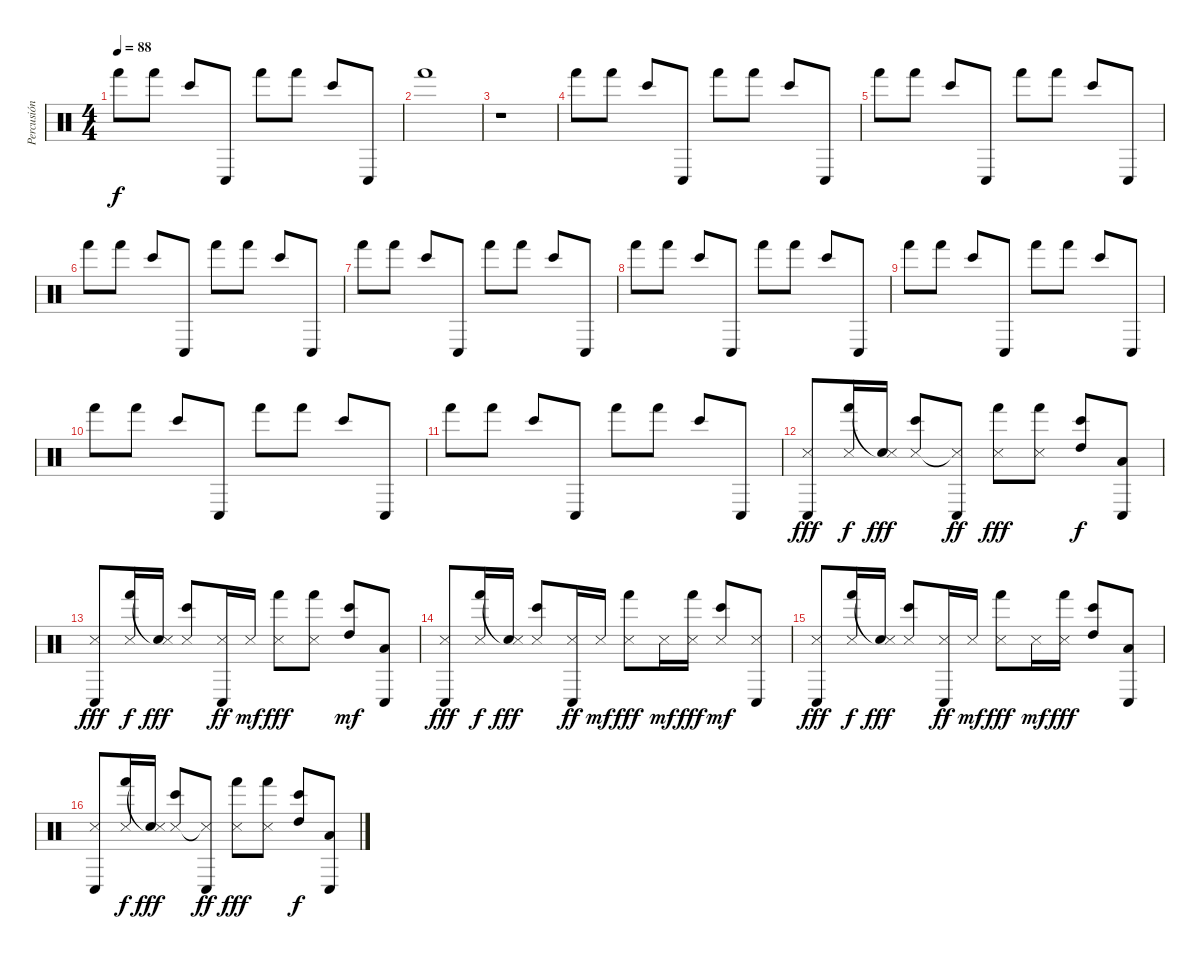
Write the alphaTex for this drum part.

\track ("Percusión" "Percusión") {instrument percussion}
\staff {score}
\articulation defaults
\ts (4 4)
\tempo 88
\clef neutral
\ks c "Hand (hit)".8{dy f} "Hand (hit)".8 "Bongo High (hit)".8 "Conga low (hit)".8 "Hand (hit)".8 "Hand (hit)".8 "Bongo High (hit)".8 "Conga low (hit)".8
|
"Hand (hit)".1 |
r.1 |
"Hand (hit)".8 "Hand (hit)".8 "Bongo High (hit)".8 "Conga low (hit)".8 "Hand (hit)".8 "Hand (hit)".8 "Bongo High (hit)".8 "Conga low (hit)".8 |
"Hand (hit)".8 "Hand (hit)".8 "Bongo High (hit)".8 "Conga low (hit)".8 "Hand (hit)".8 "Hand (hit)".8 "Bongo High (hit)".8 "Conga low (hit)".8 |
"Hand (hit)".8 "Hand (hit)".8 "Bongo High (hit)".8 "Conga low (hit)".8 "Hand (hit)".8 "Hand (hit)".8 "Bongo High (hit)".8 "Conga low (hit)".8 |
"Hand (hit)".8 "Hand (hit)".8 "Bongo High (hit)".8 "Conga low (hit)".8 "Hand (hit)".8 "Hand (hit)".8 "Bongo High (hit)".8 "Conga low (hit)".8 |
"Hand (hit)".8 "Hand (hit)".8 "Bongo High (hit)".8 "Conga low (hit)".8 "Hand (hit)".8 "Hand (hit)".8 "Bongo High (hit)".8 "Conga low (hit)".8 |
"Hand (hit)".8 "Hand (hit)".8 "Bongo High (hit)".8 "Conga low (hit)".8 "Hand (hit)".8 "Hand (hit)".8 "Bongo High (hit)".8 "Conga low (hit)".8 |
"Hand (hit)".8 "Hand (hit)".8 "Bongo High (hit)".8 "Conga low (hit)".8 "Hand (hit)".8 "Hand (hit)".8 "Bongo High (hit)".8 "Conga low (hit)".8 |
"Hand (hit)".8 "Hand (hit)".8 "Bongo High (hit)".8 "Conga low (hit)".8 "Hand (hit)".8 "Hand (hit)".8 "Bongo High (hit)".8 "Conga low (hit)".8 |
("Conga low (hit)" "Snare (side stick) 3").8{dy fff} ("Hand (hit)" "Snare (side stick) 3").16{dy f} ("Snare (hit)"{t} "Snare (side stick) 3").16{dy fff} ("Bongo High (hit)" "Snare (side stick) 3").8 ("Conga low (hit)" "Snare (side stick) 3"{t}).8{dy ff} ("Hand (hit)" "Snare (side stick) 3").8{dy fff} ("Hand (hit)" "Snare (side stick) 3").8 ("Bongo High (hit)" "High Tom (hit)").8{dy f} ("Conga low (hit)" "Low Tom (hit)").8 |
("Conga low (hit)" "Snare (side stick) 3").8{dy fff} ("Hand (hit)" "Snare (side stick) 3").16{dy f} ("Snare (hit)"{t} "Snare (side stick) 3").16{dy fff} ("Bongo High (hit)" "Snare (side stick) 3").8 ("Conga low (hit)" "Snare (side stick) 3").16{dy ff} "Snare (side stick) 3".16{dy mf} ("Hand (hit)" "Snare (side stick) 3").8{dy fff} ("Hand (hit)" "Snare (side stick) 3").8 ("Bongo High (hit)" "High Tom (hit)").8{dy mf} ("Conga low (hit)" "Low Tom (hit)").8 |
("Conga low (hit)" "Snare (side stick) 3").8{dy fff} ("Hand (hit)" "Snare (side stick) 3").16{dy f} ("Snare (hit)"{t} "Snare (side stick) 3").16{dy fff} ("Bongo High (hit)" "Snare (side stick) 3").8 ("Conga low (hit)" "Snare (side stick) 3").16{dy ff} "Snare (side stick) 3".16{dy mf} ("Hand (hit)" "Snare (side stick) 3").8{dy fff} "Snare (side stick) 3".16{dy mf} ("Hand (hit)" "Snare (side stick) 3").16{dy fff} ("Bongo High (hit)" "Snare (side stick) 3").8{dy mf} ("Conga low (hit)" "Snare (side stick) 3").8 |
("Conga low (hit)" "Snare (side stick) 3").8{dy fff} ("Hand (hit)" "Snare (side stick) 3").16{dy f} ("Snare (hit)"{t} "Snare (side stick) 3").16{dy fff} ("Bongo High (hit)" "Snare (side stick) 3").8 ("Conga low (hit)" "Snare (side stick) 3").16{dy ff} "Snare (side stick) 3".16{dy mf} ("Hand (hit)" "Snare (side stick) 3").8{dy fff} "Snare (side stick) 3".16{dy mf} ("Hand (hit)" "Snare (side stick) 3").16{dy fff} ("Bongo High (hit)" "High Tom (hit)").8 ("Conga low (hit)" "Low Tom (hit)").8 |
("Conga low (hit)" "Snare (side stick) 3").8 ("Hand (hit)" "Snare (side stick) 3").16{dy f} ("Snare (hit)"{t} "Snare (side stick) 3").16{dy fff} ("Bongo High (hit)" "Snare (side stick) 3").8 ("Conga low (hit)" "Snare (side stick) 3"{t}).8{dy ff} ("Hand (hit)" "Snare (side stick) 3").8{dy fff} ("Hand (hit)" "Snare (side stick) 3").8 ("Bongo High (hit)" "High Tom (hit)").8{dy f} ("Conga low (hit)" "Low Tom (hit)").8
